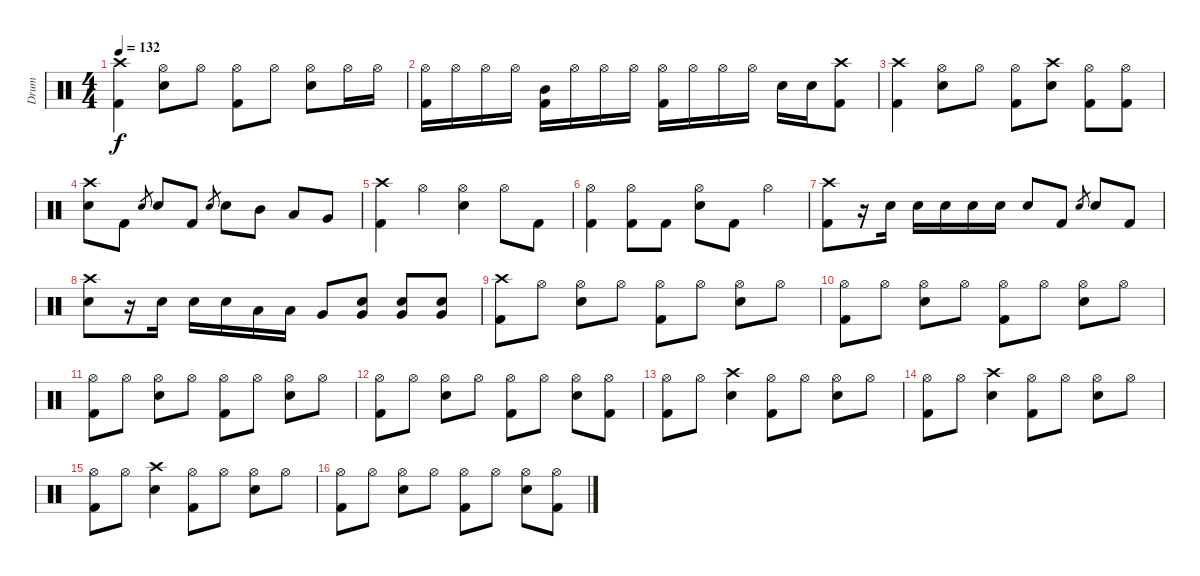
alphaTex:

\track ("Drum" "Drum") {instrument percussion}
\staff {score}
\articulation defaults
\ts (4 4)
\tempo 132
\clef neutral
\ks c
("Crash high (hit)" "Kick (hit) 2").4{dy f} ("Hi-Hat (open)" "Snare (hit) 2").8 "Hi-Hat (open)".8 ("Hi-Hat (open)" "Kick (hit) 2").8 "Hi-Hat (open)".8 ("Hi-Hat (open)" "Snare (hit) 2").8 "Hi-Hat (open)".16 "Hi-Hat (open)".16 |
("Hi-Hat (open)" "Kick (hit) 2").16 "Hi-Hat (open)".16 "Hi-Hat (open)".16 "Hi-Hat (open)".16 ("Mid Tom (hit)" "Kick (hit) 2").16 "Hi-Hat (open)".16 "Hi-Hat (open)".16 "Hi-Hat (open)".16 ("Hi-Hat (open)" "Kick (hit) 2").16 "Hi-Hat (open)".16 "Hi-Hat (open)".16 "Hi-Hat (open)".16 "Snare (hit) 2".16 "Snare (hit) 2".16 ("Crash high (hit)" "Kick (hit) 2").8 |
("Crash high (hit)" "Kick (hit) 2").4 ("Hi-Hat (open)" "Snare (hit) 2").8 "Hi-Hat (open)".8 ("Hi-Hat (open)" "Kick (hit) 2").8 ("Crash high (hit)" "Snare (hit) 2").8 ("Hi-Hat (open)" "Kick (hit) 2").8 ("Hi-Hat (open)" "Kick (hit) 2").8 |
("Crash high (hit)" "Snare (hit) 2").8 "Kick (hit) 2".8 "Snare (hit) 2".8{gr} "Snare (hit) 2".8 "Kick (hit) 2".8 "Snare (hit) 2".8{gr} "Snare (hit) 2".8 "Mid Tom (hit)".8 "Low Tom (hit)".8 "Very Low Tom (hit)".8 |
("Crash high (hit)" "Kick (hit) 2").4 "Hi-Hat (open)".4 ("Hi-Hat (open)" "Snare (hit) 2").4 "Hi-Hat (open)".8 "Kick (hit) 2".8 |
("Hi-Hat (open)" "Kick (hit) 2").4 ("Hi-Hat (open)" "Kick (hit) 2").8 "Kick (hit) 2".8 ("Hi-Hat (open)" "Snare (hit) 2").8 "Kick (hit) 2".8 "Hi-Hat (open)".4 |
("Crash high (hit)" "Kick (hit) 2").8 r.16 "Snare (hit) 2".16 "Snare (hit) 2".16 "Snare (hit) 2".16 "Snare (hit) 2".16 "Snare (hit) 2".16 "Snare (hit) 2".8 "Kick (hit) 2".8 "Snare (hit) 2".8{gr} "Snare (hit) 2".8 "Kick (hit) 2".8 |
("Crash high (hit)" "Snare (hit) 2").8 r.16 "Snare (hit) 2".16 "Snare (hit) 2".16 "Snare (hit) 2".16 "Low Tom (hit)".16 "Low Tom (hit)".16 "Very Low Tom (hit)".8 ("Very Low Tom (hit)" "Snare (hit) 2").8 ("Very Low Tom (hit)" "Snare (hit) 2").8 ("Very Low Tom (hit)" "Snare (hit) 2").8 |
("Crash high (hit)" "Kick (hit) 2").8 "Hi-Hat (open)".8 ("Hi-Hat (open)" "Snare (hit) 2").8 "Hi-Hat (open)".8 ("Hi-Hat (open)" "Kick (hit) 2").8 "Hi-Hat (open)".8 ("Hi-Hat (open)" "Snare (hit) 2").8 "Hi-Hat (open)".8 |
("Hi-Hat (open)" "Kick (hit) 2").8 "Hi-Hat (open)".8 ("Hi-Hat (open)" "Snare (hit) 2").8 "Hi-Hat (open)".8 ("Hi-Hat (open)" "Kick (hit) 2").8 "Hi-Hat (open)".8 ("Hi-Hat (open)" "Snare (hit) 2").8 "Hi-Hat (open)".8 |
("Hi-Hat (open)" "Kick (hit) 2").8 "Hi-Hat (open)".8 ("Hi-Hat (open)" "Snare (hit) 2").8 "Hi-Hat (open)".8 ("Hi-Hat (open)" "Kick (hit) 2").8 "Hi-Hat (open)".8 ("Hi-Hat (open)" "Snare (hit) 2").8 "Hi-Hat (open)".8 |
("Hi-Hat (open)" "Kick (hit) 2").8 "Hi-Hat (open)".8 ("Hi-Hat (open)" "Snare (hit) 2").8 "Hi-Hat (open)".8 ("Hi-Hat (open)" "Kick (hit) 2").8 "Hi-Hat (open)".8 ("Hi-Hat (open)" "Snare (hit) 2").8 ("Hi-Hat (open)" "Kick (hit) 2").8 |
("Hi-Hat (open)" "Kick (hit) 2").8 "Hi-Hat (open)".8 ("Crash high (hit)" "Snare (hit) 2").4 ("Hi-Hat (open)" "Kick (hit) 2").8 "Hi-Hat (open)".8 ("Hi-Hat (open)" "Snare (hit) 2").8 "Hi-Hat (open)".8 |
("Hi-Hat (open)" "Kick (hit) 2").8 "Hi-Hat (open)".8 ("Crash high (hit)" "Snare (hit) 2").4 ("Hi-Hat (open)" "Kick (hit) 2").8 "Hi-Hat (open)".8 ("Hi-Hat (open)" "Snare (hit) 2").8 "Hi-Hat (open)".8 |
("Hi-Hat (open)" "Kick (hit) 2").8 "Hi-Hat (open)".8 ("Crash high (hit)" "Snare (hit) 2").4 ("Hi-Hat (open)" "Kick (hit) 2").8 "Hi-Hat (open)".8 ("Hi-Hat (open)" "Snare (hit) 2").8 "Hi-Hat (open)".8 |
("Hi-Hat (open)" "Kick (hit) 2").8 "Hi-Hat (open)".8 ("Hi-Hat (open)" "Snare (hit) 2").8 "Hi-Hat (open)".8 ("Hi-Hat (open)" "Kick (hit) 2").8 "Hi-Hat (open)".8 ("Hi-Hat (open)" "Snare (hit) 2").8 ("Hi-Hat (open)" "Kick (hit) 2").8
